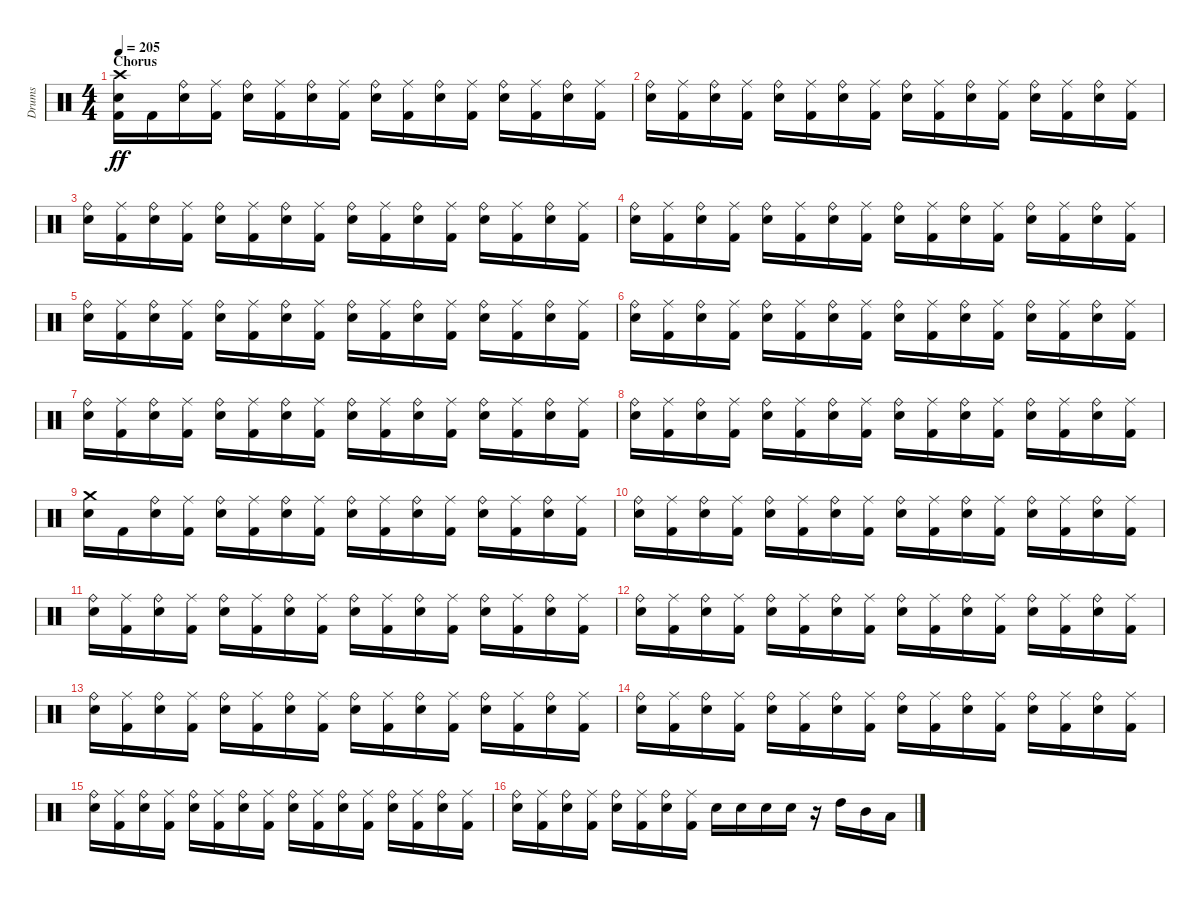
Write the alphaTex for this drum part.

\track ("Drums" "Drums") {instrument percussion}
\staff {score}
\articulation defaults
\ts (4 4)
\section ("" "Chorus")
\tempo 205
\clef neutral
\ks c
("Kick (hit) 2" "Crash high (hit)" "Snare (hit) 2").16{dy ff} "Kick (hit) 2".16 ("Snare (hit) 2" "Ride (bell)").16 ("Kick (hit) 2" "Ride (middle)").16 ("Snare (hit) 2" "Ride (bell)").16 ("Kick (hit) 2" "Ride (middle)").16 ("Snare (hit) 2" "Ride (bell)").16 ("Kick (hit) 2" "Ride (middle)").16 ("Snare (hit) 2" "Ride (bell)").16 ("Kick (hit) 2" "Ride (middle)").16 ("Snare (hit) 2" "Ride (bell)").16 ("Kick (hit) 2" "Ride (middle)").16 ("Snare (hit) 2" "Ride (bell)").16 ("Kick (hit) 2" "Ride (middle)").16 ("Snare (hit) 2" "Ride (bell)").16 ("Kick (hit) 2" "Ride (middle)").16 |
("Snare (hit) 2" "Ride (bell)").16 ("Kick (hit) 2" "Ride (middle)").16 ("Snare (hit) 2" "Ride (bell)").16 ("Kick (hit) 2" "Ride (middle)").16 ("Snare (hit) 2" "Ride (bell)").16 ("Kick (hit) 2" "Ride (middle)").16 ("Snare (hit) 2" "Ride (bell)").16 ("Kick (hit) 2" "Ride (middle)").16 ("Snare (hit) 2" "Ride (bell)").16 ("Kick (hit) 2" "Ride (middle)").16 ("Snare (hit) 2" "Ride (bell)").16 ("Kick (hit) 2" "Ride (middle)").16 ("Snare (hit) 2" "Ride (bell)").16 ("Kick (hit) 2" "Ride (middle)").16 ("Snare (hit) 2" "Ride (bell)").16 ("Kick (hit) 2" "Ride (middle)").16 |
("Snare (hit) 2" "Ride (bell)").16 ("Kick (hit) 2" "Ride (middle)").16 ("Snare (hit) 2" "Ride (bell)").16 ("Kick (hit) 2" "Ride (middle)").16 ("Snare (hit) 2" "Ride (bell)").16 ("Kick (hit) 2" "Ride (middle)").16 ("Snare (hit) 2" "Ride (bell)").16 ("Kick (hit) 2" "Ride (middle)").16 ("Snare (hit) 2" "Ride (bell)").16 ("Kick (hit) 2" "Ride (middle)").16 ("Snare (hit) 2" "Ride (bell)").16 ("Kick (hit) 2" "Ride (middle)").16 ("Snare (hit) 2" "Ride (bell)").16 ("Kick (hit) 2" "Ride (middle)").16 ("Snare (hit) 2" "Ride (bell)").16 ("Kick (hit) 2" "Ride (middle)").16 |
("Snare (hit) 2" "Ride (bell)").16 ("Kick (hit) 2" "Ride (middle)").16 ("Snare (hit) 2" "Ride (bell)").16 ("Kick (hit) 2" "Ride (middle)").16 ("Snare (hit) 2" "Ride (bell)").16 ("Kick (hit) 2" "Ride (middle)").16 ("Snare (hit) 2" "Ride (bell)").16 ("Kick (hit) 2" "Ride (middle)").16 ("Snare (hit) 2" "Ride (bell)").16 ("Kick (hit) 2" "Ride (middle)").16 ("Snare (hit) 2" "Ride (bell)").16 ("Kick (hit) 2" "Ride (middle)").16 ("Snare (hit) 2" "Ride (bell)").16 ("Kick (hit) 2" "Ride (middle)").16 ("Snare (hit) 2" "Ride (bell)").16 ("Kick (hit) 2" "Ride (middle)").16 |
("Snare (hit) 2" "Ride (bell)").16 ("Kick (hit) 2" "Ride (middle)").16 ("Snare (hit) 2" "Ride (bell)").16 ("Kick (hit) 2" "Ride (middle)").16 ("Snare (hit) 2" "Ride (bell)").16 ("Kick (hit) 2" "Ride (middle)").16 ("Snare (hit) 2" "Ride (bell)").16 ("Kick (hit) 2" "Ride (middle)").16 ("Snare (hit) 2" "Ride (bell)").16 ("Kick (hit) 2" "Ride (middle)").16 ("Snare (hit) 2" "Ride (bell)").16 ("Kick (hit) 2" "Ride (middle)").16 ("Snare (hit) 2" "Ride (bell)").16 ("Kick (hit) 2" "Ride (middle)").16 ("Snare (hit) 2" "Ride (bell)").16 ("Kick (hit) 2" "Ride (middle)").16 |
("Snare (hit) 2" "Ride (bell)").16 ("Kick (hit) 2" "Ride (middle)").16 ("Snare (hit) 2" "Ride (bell)").16 ("Kick (hit) 2" "Ride (middle)").16 ("Snare (hit) 2" "Ride (bell)").16 ("Kick (hit) 2" "Ride (middle)").16 ("Snare (hit) 2" "Ride (bell)").16 ("Kick (hit) 2" "Ride (middle)").16 ("Snare (hit) 2" "Ride (bell)").16 ("Kick (hit) 2" "Ride (middle)").16 ("Snare (hit) 2" "Ride (bell)").16 ("Kick (hit) 2" "Ride (middle)").16 ("Snare (hit) 2" "Ride (bell)").16 ("Kick (hit) 2" "Ride (middle)").16 ("Snare (hit) 2" "Ride (bell)").16 ("Kick (hit) 2" "Ride (middle)").16 |
("Snare (hit) 2" "Ride (bell)").16 ("Kick (hit) 2" "Ride (middle)").16 ("Snare (hit) 2" "Ride (bell)").16 ("Kick (hit) 2" "Ride (middle)").16 ("Snare (hit) 2" "Ride (bell)").16 ("Kick (hit) 2" "Ride (middle)").16 ("Snare (hit) 2" "Ride (bell)").16 ("Kick (hit) 2" "Ride (middle)").16 ("Snare (hit) 2" "Ride (bell)").16 ("Kick (hit) 2" "Ride (middle)").16 ("Snare (hit) 2" "Ride (bell)").16 ("Kick (hit) 2" "Ride (middle)").16 ("Snare (hit) 2" "Ride (bell)").16 ("Kick (hit) 2" "Ride (middle)").16 ("Snare (hit) 2" "Ride (bell)").16 ("Kick (hit) 2" "Ride (middle)").16 |
("Snare (hit) 2" "Ride (bell)").16 ("Kick (hit) 2" "Ride (middle)").16 ("Snare (hit) 2" "Ride (bell)").16 ("Kick (hit) 2" "Ride (middle)").16 ("Snare (hit) 2" "Ride (bell)").16 ("Kick (hit) 2" "Ride (middle)").16 ("Snare (hit) 2" "Ride (bell)").16 ("Kick (hit) 2" "Ride (middle)").16 ("Snare (hit) 2" "Ride (bell)").16 ("Kick (hit) 2" "Ride (middle)").16 ("Snare (hit) 2" "Ride (bell)").16 ("Kick (hit) 2" "Ride (middle)").16 ("Snare (hit) 2" "Ride (bell)").16 ("Kick (hit) 2" "Ride (middle)").16 ("Snare (hit) 2" "Ride (bell)").16 ("Kick (hit) 2" "Ride (middle)").16 |
("Crash medium (hit)" "Snare (hit) 2").16 "Kick (hit) 2".16 ("Snare (hit) 2" "Ride (bell)").16 ("Kick (hit) 2" "Ride (middle)").16 ("Snare (hit) 2" "Ride (bell)").16 ("Kick (hit) 2" "Ride (middle)").16 ("Snare (hit) 2" "Ride (bell)").16 ("Kick (hit) 2" "Ride (middle)").16 ("Snare (hit) 2" "Ride (bell)").16 ("Kick (hit) 2" "Ride (middle)").16 ("Snare (hit) 2" "Ride (bell)").16 ("Kick (hit) 2" "Ride (middle)").16 ("Snare (hit) 2" "Ride (bell)").16 ("Kick (hit) 2" "Ride (middle)").16 ("Snare (hit) 2" "Ride (bell)").16 ("Kick (hit) 2" "Ride (middle)").16 |
("Snare (hit) 2" "Ride (bell)").16 ("Kick (hit) 2" "Ride (middle)").16 ("Snare (hit) 2" "Ride (bell)").16 ("Kick (hit) 2" "Ride (middle)").16 ("Snare (hit) 2" "Ride (bell)").16 ("Kick (hit) 2" "Ride (middle)").16 ("Snare (hit) 2" "Ride (bell)").16 ("Kick (hit) 2" "Ride (middle)").16 ("Snare (hit) 2" "Ride (bell)").16 ("Kick (hit) 2" "Ride (middle)").16 ("Snare (hit) 2" "Ride (bell)").16 ("Kick (hit) 2" "Ride (middle)").16 ("Snare (hit) 2" "Ride (bell)").16 ("Kick (hit) 2" "Ride (middle)").16 ("Snare (hit) 2" "Ride (bell)").16 ("Kick (hit) 2" "Ride (middle)").16 |
("Snare (hit) 2" "Ride (bell)").16 ("Kick (hit) 2" "Ride (middle)").16 ("Snare (hit) 2" "Ride (bell)").16 ("Kick (hit) 2" "Ride (middle)").16 ("Snare (hit) 2" "Ride (bell)").16 ("Kick (hit) 2" "Ride (middle)").16 ("Snare (hit) 2" "Ride (bell)").16 ("Kick (hit) 2" "Ride (middle)").16 ("Snare (hit) 2" "Ride (bell)").16 ("Kick (hit) 2" "Ride (middle)").16 ("Snare (hit) 2" "Ride (bell)").16 ("Kick (hit) 2" "Ride (middle)").16 ("Snare (hit) 2" "Ride (bell)").16 ("Kick (hit) 2" "Ride (middle)").16 ("Snare (hit) 2" "Ride (bell)").16 ("Kick (hit) 2" "Ride (middle)").16 |
("Snare (hit) 2" "Ride (bell)").16 ("Kick (hit) 2" "Ride (middle)").16 ("Snare (hit) 2" "Ride (bell)").16 ("Kick (hit) 2" "Ride (middle)").16 ("Snare (hit) 2" "Ride (bell)").16 ("Kick (hit) 2" "Ride (middle)").16 ("Snare (hit) 2" "Ride (bell)").16 ("Kick (hit) 2" "Ride (middle)").16 ("Snare (hit) 2" "Ride (bell)").16 ("Kick (hit) 2" "Ride (middle)").16 ("Snare (hit) 2" "Ride (bell)").16 ("Kick (hit) 2" "Ride (middle)").16 ("Snare (hit) 2" "Ride (bell)").16 ("Kick (hit) 2" "Ride (middle)").16 ("Snare (hit) 2" "Ride (bell)").16 ("Kick (hit) 2" "Ride (middle)").16 |
("Snare (hit) 2" "Ride (bell)").16 ("Kick (hit) 2" "Ride (middle)").16 ("Snare (hit) 2" "Ride (bell)").16 ("Kick (hit) 2" "Ride (middle)").16 ("Snare (hit) 2" "Ride (bell)").16 ("Kick (hit) 2" "Ride (middle)").16 ("Snare (hit) 2" "Ride (bell)").16 ("Kick (hit) 2" "Ride (middle)").16 ("Snare (hit) 2" "Ride (bell)").16 ("Kick (hit) 2" "Ride (middle)").16 ("Snare (hit) 2" "Ride (bell)").16 ("Kick (hit) 2" "Ride (middle)").16 ("Snare (hit) 2" "Ride (bell)").16 ("Kick (hit) 2" "Ride (middle)").16 ("Snare (hit) 2" "Ride (bell)").16 ("Kick (hit) 2" "Ride (middle)").16 |
("Snare (hit) 2" "Ride (bell)").16 ("Kick (hit) 2" "Ride (middle)").16 ("Snare (hit) 2" "Ride (bell)").16 ("Kick (hit) 2" "Ride (middle)").16 ("Snare (hit) 2" "Ride (bell)").16 ("Kick (hit) 2" "Ride (middle)").16 ("Snare (hit) 2" "Ride (bell)").16 ("Kick (hit) 2" "Ride (middle)").16 ("Snare (hit) 2" "Ride (bell)").16 ("Kick (hit) 2" "Ride (middle)").16 ("Snare (hit) 2" "Ride (bell)").16 ("Kick (hit) 2" "Ride (middle)").16 ("Snare (hit) 2" "Ride (bell)").16 ("Kick (hit) 2" "Ride (middle)").16 ("Snare (hit) 2" "Ride (bell)").16 ("Kick (hit) 2" "Ride (middle)").16 |
("Snare (hit) 2" "Ride (bell)").16 ("Kick (hit) 2" "Ride (middle)").16 ("Snare (hit) 2" "Ride (bell)").16 ("Kick (hit) 2" "Ride (middle)").16 ("Snare (hit) 2" "Ride (bell)").16 ("Kick (hit) 2" "Ride (middle)").16 ("Snare (hit) 2" "Ride (bell)").16 ("Kick (hit) 2" "Ride (middle)").16 ("Snare (hit) 2" "Ride (bell)").16 ("Kick (hit) 2" "Ride (middle)").16 ("Snare (hit) 2" "Ride (bell)").16 ("Kick (hit) 2" "Ride (middle)").16 ("Snare (hit) 2" "Ride (bell)").16 ("Kick (hit) 2" "Ride (middle)").16 ("Snare (hit) 2" "Ride (bell)").16 ("Kick (hit) 2" "Ride (middle)").16 |
("Snare (hit) 2" "Ride (bell)").16 ("Kick (hit) 2" "Ride (middle)").16 ("Snare (hit) 2" "Ride (bell)").16 ("Kick (hit) 2" "Ride (middle)").16 ("Snare (hit) 2" "Ride (bell)").16 ("Kick (hit) 2" "Ride (middle)").16 ("Snare (hit) 2" "Ride (bell)").16 ("Kick (hit) 2" "Ride (middle)").16 "Snare (hit) 2".16 "Snare (hit) 2".16 "Snare (hit) 2".16 "Snare (hit) 2".16 r.16 "High Tom (hit)".16 "Mid Tom (hit)".16 "Low Tom (hit)".16
